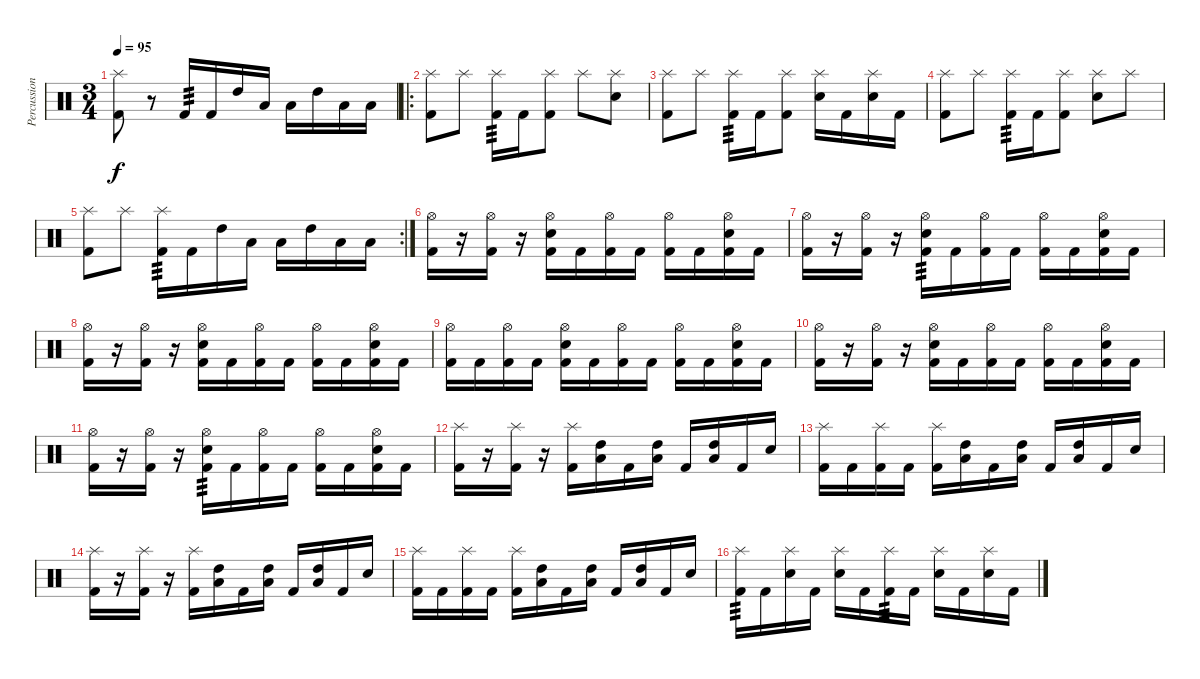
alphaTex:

\track ("Percussion" "Percussion") {instrument percussion}
\staff {score}
\articulation defaults
\ts (3 4)
\tempo 95
\clef neutral
\ks c
("Splash (hit)" "Kick (hit) 2").8{dy f} r.8 "Kick (hit) 2".16{tp 3} "Kick (hit) 2".16 "High Tom (hit)".16 "Low Tom (hit)".16 "Low Floor Tom (hit)".16 "High Tom (hit)".16 "Low Tom (hit)".16 "Low Floor Tom (hit)".16 |
\ro
("Splash (hit)" "Kick (hit) 2").8 "Splash (hit)".8 ("Splash (hit)" "Kick (hit) 2").16{tp 3} "Kick (hit) 2".16 ("Splash (hit)" "Kick (hit) 2").8 "Splash (hit)".8 ("Splash (hit)" "Electric Snare (hit)").8 |
("Splash (hit)" "Kick (hit) 2").8 "Splash (hit)".8 ("Splash (hit)" "Kick (hit) 2").16{tp 3} "Kick (hit) 2".16 ("Splash (hit)" "Kick (hit) 2").8 ("Splash (hit)" "Electric Snare (hit)").16 "Kick (hit) 2".16 ("Splash (hit)" "Electric Snare (hit)").16 "Kick (hit) 2".16 |
("Splash (hit)" "Kick (hit) 2").8 "Splash (hit)".8 ("Splash (hit)" "Kick (hit) 2").16{tp 3} "Kick (hit) 2".16 ("Splash (hit)" "Kick (hit) 2").8 ("Splash (hit)" "Electric Snare (hit)").8 "Splash (hit)".8 |
\rc 2
("Splash (hit)" "Kick (hit) 2").8 "Splash (hit)".8 ("Splash (hit)" "Kick (hit) 2").16{tp 3} "Kick (hit) 2".16 "High Tom (hit)".16 "Low Tom (hit)".16 "Low Floor Tom (hit)".16 "High Tom (hit)".16 "Low Tom (hit)".16 "Low Floor Tom (hit)".16 |
("Hi-Hat (open)" "Kick (hit) 2").16 r.16 ("Hi-Hat (open)" "Kick (hit) 2").16 r.16 ("Hi-Hat (open)" "Electric Snare (hit)" "Kick (hit) 2").16 "Kick (hit) 2".16 ("Hi-Hat (open)" "Kick (hit) 2").16 "Kick (hit) 2".16 ("Hi-Hat (open)" "Kick (hit) 2").16 "Kick (hit) 2".16 ("Hi-Hat (open)" "Electric Snare (hit)" "Kick (hit) 2").16 "Kick (hit) 2".16 |
("Hi-Hat (open)" "Kick (hit) 2").16 r.16 ("Hi-Hat (open)" "Kick (hit) 2").16 r.16 ("Hi-Hat (open)" "Electric Snare (hit)" "Kick (hit) 2").16{tp 3} "Kick (hit) 2".16 ("Hi-Hat (open)" "Kick (hit) 2").16 "Kick (hit) 2".16 ("Hi-Hat (open)" "Kick (hit) 2").16 "Kick (hit) 2".16 ("Hi-Hat (open)" "Electric Snare (hit)" "Kick (hit) 2").16 "Kick (hit) 2".16 |
("Hi-Hat (open)" "Kick (hit) 2").16 r.16 ("Hi-Hat (open)" "Kick (hit) 2").16 r.16 ("Hi-Hat (open)" "Electric Snare (hit)" "Kick (hit) 2").16 "Kick (hit) 2".16 ("Hi-Hat (open)" "Kick (hit) 2").16 "Kick (hit) 2".16 ("Hi-Hat (open)" "Kick (hit) 2").16 "Kick (hit) 2".16 ("Hi-Hat (open)" "Electric Snare (hit)" "Kick (hit) 2").16 "Kick (hit) 2".16 |
("Hi-Hat (open)" "Kick (hit) 2").16 "Kick (hit) 2".16 ("Hi-Hat (open)" "Kick (hit) 2").16 "Kick (hit) 2".16 ("Hi-Hat (open)" "Electric Snare (hit)" "Kick (hit) 2").16 "Kick (hit) 2".16 ("Hi-Hat (open)" "Kick (hit) 2").16 "Kick (hit) 2".16 ("Hi-Hat (open)" "Kick (hit) 2").16 "Kick (hit) 2".16 ("Hi-Hat (open)" "Electric Snare (hit)" "Kick (hit) 2").16 "Kick (hit) 2".16 |
("Hi-Hat (open)" "Kick (hit) 2").16 r.16 ("Hi-Hat (open)" "Kick (hit) 2").16 r.16 ("Hi-Hat (open)" "Electric Snare (hit)" "Kick (hit) 2").16 "Kick (hit) 2".16 ("Hi-Hat (open)" "Kick (hit) 2").16 "Kick (hit) 2".16 ("Hi-Hat (open)" "Kick (hit) 2").16 "Kick (hit) 2".16 ("Hi-Hat (open)" "Electric Snare (hit)" "Kick (hit) 2").16 "Kick (hit) 2".16 |
("Hi-Hat (open)" "Kick (hit) 2").16 r.16 ("Hi-Hat (open)" "Kick (hit) 2").16 r.16 ("Hi-Hat (open)" "Electric Snare (hit)" "Kick (hit) 2").16{tp 3} "Kick (hit) 2".16 ("Hi-Hat (open)" "Kick (hit) 2").16 "Kick (hit) 2".16 ("Hi-Hat (open)" "Kick (hit) 2").16 "Kick (hit) 2".16 ("Hi-Hat (open)" "Electric Snare (hit)" "Kick (hit) 2").16 "Kick (hit) 2".16 |
("Splash (hit)" "Kick (hit) 2").16 r.16 ("Splash (hit)" "Kick (hit) 2").16 r.16 ("Splash (hit)" "Kick (hit) 2").16 ("High Tom (hit)" "Low Floor Tom (hit)").16 "Kick (hit) 2".16 ("High Tom (hit)" "Low Floor Tom (hit)").16 "Kick (hit) 2".16 ("High Tom (hit)" "Low Floor Tom (hit)").16 "Kick (hit) 2".16 "Electric Snare (hit)".16 |
("Splash (hit)" "Kick (hit) 2").16 "Kick (hit) 2".16 ("Splash (hit)" "Kick (hit) 2").16 "Kick (hit) 2".16 ("Splash (hit)" "Kick (hit) 2").16 ("High Tom (hit)" "Low Floor Tom (hit)").16 "Kick (hit) 2".16 ("High Tom (hit)" "Low Floor Tom (hit)").16 "Kick (hit) 2".16 ("High Tom (hit)" "Low Floor Tom (hit)").16 "Kick (hit) 2".16 "Electric Snare (hit)".16 |
("Splash (hit)" "Kick (hit) 2").16 r.16 ("Splash (hit)" "Kick (hit) 2").16 r.16 ("Splash (hit)" "Kick (hit) 2").16 ("High Tom (hit)" "Low Floor Tom (hit)").16 "Kick (hit) 2".16 ("High Tom (hit)" "Low Floor Tom (hit)").16 "Kick (hit) 2".16 ("High Tom (hit)" "Low Floor Tom (hit)").16 "Kick (hit) 2".16 "Electric Snare (hit)".16 |
("Splash (hit)" "Kick (hit) 2").16 "Kick (hit) 2".16 ("Splash (hit)" "Kick (hit) 2").16 "Kick (hit) 2".16 ("Splash (hit)" "Kick (hit) 2").16 ("High Tom (hit)" "Low Floor Tom (hit)").16 "Kick (hit) 2".16 ("High Tom (hit)" "Low Floor Tom (hit)").16 "Kick (hit) 2".16 ("High Tom (hit)" "Low Floor Tom (hit)").16 "Kick (hit) 2".16 "Electric Snare (hit)".16 |
("Splash (hit)" "Kick (hit) 2").16{tp 3} "Kick (hit) 2".16 ("Splash (hit)" "Electric Snare (hit)").16 "Kick (hit) 2".16 ("Splash (hit)" "Electric Snare (hit)").16 "Kick (hit) 2".16 ("Splash (hit)" "Kick (hit) 2").16{tp 3} "Kick (hit) 2".16 ("Splash (hit)" "Electric Snare (hit)").16 "Kick (hit) 2".16 ("Splash (hit)" "Electric Snare (hit)").16 "Kick (hit) 2".16
